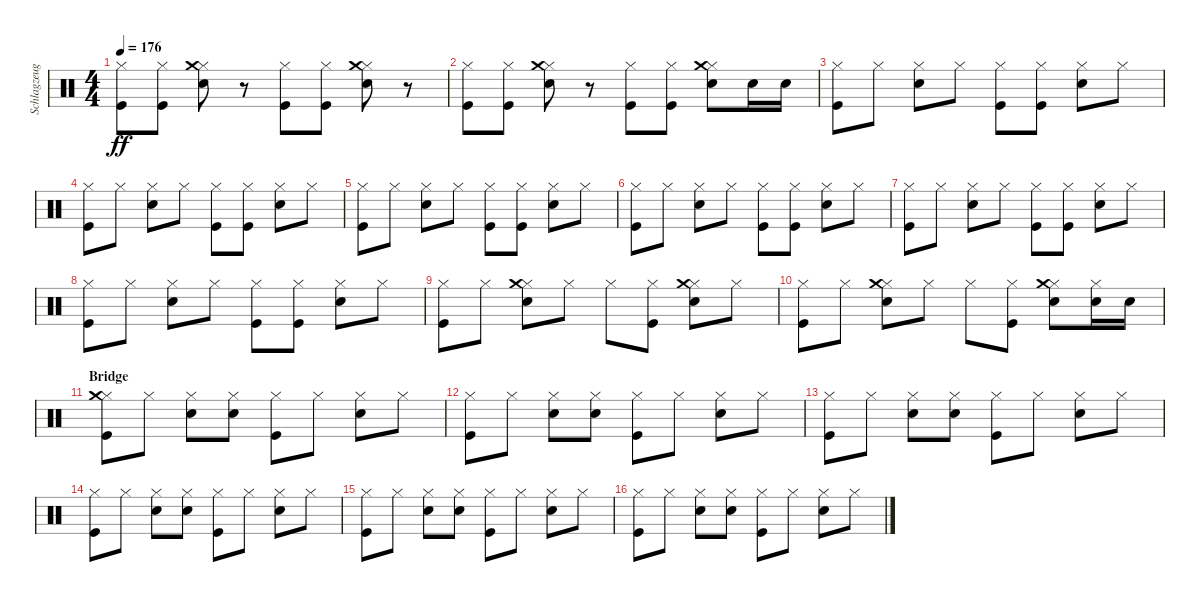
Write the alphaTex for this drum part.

\track ("Schlagzeug - Bela B." "Schlagzeug") {instrument percussion}
\staff {score}
\articulation defaults
\ts (4 4)
\tempo 176
\clef neutral
\ks c
("Kick (hit)" "Hi-Hat (closed)").8{dy ff} ("Hi-Hat (closed)" "Kick (hit)").8 ("Hi-Hat (closed)" "Electric Snare (hit)" "Crash medium (hit)").8 r.8 ("Hi-Hat (closed)" "Kick (hit)").8 ("Hi-Hat (closed)" "Kick (hit)").8 ("Hi-Hat (closed)" "Electric Snare (hit)" "Crash medium (hit)").8 r.8 |
("Kick (hit)" "Hi-Hat (closed)").8 ("Hi-Hat (closed)" "Kick (hit)").8 ("Hi-Hat (closed)" "Electric Snare (hit)" "Crash medium (hit)").8 r.8 ("Hi-Hat (closed)" "Kick (hit)").8 ("Hi-Hat (closed)" "Kick (hit)").8 ("Hi-Hat (closed)" "Electric Snare (hit)" "Crash medium (hit)").8 "Electric Snare (hit)".16 "Electric Snare (hit)".16 |
("Kick (hit)" "Hi-Hat (closed)").8 "Hi-Hat (closed)".8 ("Hi-Hat (closed)" "Electric Snare (hit)").8 "Hi-Hat (closed)".8 ("Hi-Hat (closed)" "Kick (hit)").8 ("Hi-Hat (closed)" "Kick (hit)").8 ("Hi-Hat (closed)" "Electric Snare (hit)").8 "Hi-Hat (closed)".8 |
("Kick (hit)" "Hi-Hat (closed)").8 "Hi-Hat (closed)".8 ("Hi-Hat (closed)" "Electric Snare (hit)").8 "Hi-Hat (closed)".8 ("Hi-Hat (closed)" "Kick (hit)").8 ("Hi-Hat (closed)" "Kick (hit)").8 ("Hi-Hat (closed)" "Electric Snare (hit)").8 "Hi-Hat (closed)".8 |
("Kick (hit)" "Hi-Hat (closed)").8 "Hi-Hat (closed)".8 ("Hi-Hat (closed)" "Electric Snare (hit)").8 "Hi-Hat (closed)".8 ("Hi-Hat (closed)" "Kick (hit)").8 ("Hi-Hat (closed)" "Kick (hit)").8 ("Hi-Hat (closed)" "Electric Snare (hit)").8 "Hi-Hat (closed)".8 |
("Kick (hit)" "Hi-Hat (closed)").8 "Hi-Hat (closed)".8 ("Hi-Hat (closed)" "Electric Snare (hit)").8 "Hi-Hat (closed)".8 ("Hi-Hat (closed)" "Kick (hit)").8 ("Hi-Hat (closed)" "Kick (hit)").8 ("Hi-Hat (closed)" "Electric Snare (hit)").8 "Hi-Hat (closed)".8 |
("Kick (hit)" "Hi-Hat (closed)").8 "Hi-Hat (closed)".8 ("Hi-Hat (closed)" "Electric Snare (hit)").8 "Hi-Hat (closed)".8 ("Hi-Hat (closed)" "Kick (hit)").8 ("Hi-Hat (closed)" "Kick (hit)").8 ("Hi-Hat (closed)" "Electric Snare (hit)").8 "Hi-Hat (closed)".8 |
("Kick (hit)" "Hi-Hat (closed)").8 "Hi-Hat (closed)".8 ("Hi-Hat (closed)" "Electric Snare (hit)").8 "Hi-Hat (closed)".8 ("Hi-Hat (closed)" "Kick (hit)").8 ("Hi-Hat (closed)" "Kick (hit)").8 ("Hi-Hat (closed)" "Electric Snare (hit)").8 "Hi-Hat (closed)".8 |
("Kick (hit)" "Hi-Hat (closed)").8 "Hi-Hat (closed)".8 ("Hi-Hat (closed)" "Electric Snare (hit)" "Crash medium (hit)").8 "Hi-Hat (closed)".8 "Hi-Hat (closed)".8 ("Hi-Hat (closed)" "Kick (hit)").8 ("Hi-Hat (closed)" "Electric Snare (hit)" "Crash medium (hit)").8 "Hi-Hat (closed)".8 |
("Kick (hit)" "Hi-Hat (closed)").8 "Hi-Hat (closed)".8 ("Hi-Hat (closed)" "Electric Snare (hit)" "Crash medium (hit)").8 "Hi-Hat (closed)".8 "Hi-Hat (closed)".8 ("Hi-Hat (closed)" "Kick (hit)").8 ("Hi-Hat (closed)" "Electric Snare (hit)" "Crash medium (hit)").8 ("Hi-Hat (closed)" "Electric Snare (hit)").16 "Electric Snare (hit)".16 |
\section ("" "Bridge")
("Kick (hit)" "Hi-Hat (closed)" "Crash medium (hit)").8 "Hi-Hat (closed)".8 ("Electric Snare (hit)" "Hi-Hat (closed)").8 ("Hi-Hat (closed)" "Electric Snare (hit)").8 ("Hi-Hat (closed)" "Kick (hit)").8 "Hi-Hat (closed)".8 ("Hi-Hat (closed)" "Electric Snare (hit)").8 "Hi-Hat (closed)".8 |
("Kick (hit)" "Hi-Hat (closed)").8 "Hi-Hat (closed)".8 ("Electric Snare (hit)" "Hi-Hat (closed)").8 ("Hi-Hat (closed)" "Electric Snare (hit)").8 ("Hi-Hat (closed)" "Kick (hit)").8 "Hi-Hat (closed)".8 ("Hi-Hat (closed)" "Electric Snare (hit)").8 "Hi-Hat (closed)".8 |
("Kick (hit)" "Hi-Hat (closed)").8 "Hi-Hat (closed)".8 ("Electric Snare (hit)" "Hi-Hat (closed)").8 ("Hi-Hat (closed)" "Electric Snare (hit)").8 ("Hi-Hat (closed)" "Kick (hit)").8 "Hi-Hat (closed)".8 ("Hi-Hat (closed)" "Electric Snare (hit)").8 "Hi-Hat (closed)".8 |
("Kick (hit)" "Hi-Hat (closed)").8 "Hi-Hat (closed)".8 ("Electric Snare (hit)" "Hi-Hat (closed)").8 ("Hi-Hat (closed)" "Electric Snare (hit)").8 ("Hi-Hat (closed)" "Kick (hit)").8 "Hi-Hat (closed)".8 ("Hi-Hat (closed)" "Electric Snare (hit)").8 "Hi-Hat (closed)".8 |
("Kick (hit)" "Hi-Hat (closed)").8 "Hi-Hat (closed)".8 ("Electric Snare (hit)" "Hi-Hat (closed)").8 ("Hi-Hat (closed)" "Electric Snare (hit)").8 ("Hi-Hat (closed)" "Kick (hit)").8 "Hi-Hat (closed)".8 ("Hi-Hat (closed)" "Electric Snare (hit)").8 "Hi-Hat (closed)".8 |
("Kick (hit)" "Hi-Hat (closed)").8 "Hi-Hat (closed)".8 ("Electric Snare (hit)" "Hi-Hat (closed)").8 ("Hi-Hat (closed)" "Electric Snare (hit)").8 ("Hi-Hat (closed)" "Kick (hit)").8 "Hi-Hat (closed)".8 ("Hi-Hat (closed)" "Electric Snare (hit)").8 "Hi-Hat (closed)".8
